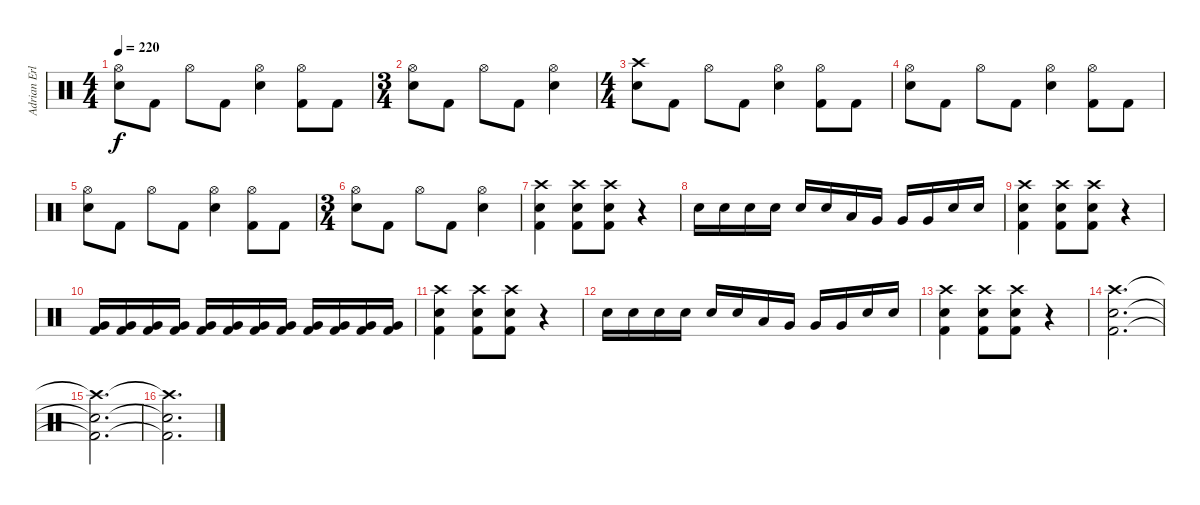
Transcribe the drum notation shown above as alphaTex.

\track ("Adrian Erlandsson" "Adrian Erl") {instrument percussion}
\staff {score}
\articulation defaults
\ts (4 4)
\tempo 220
\clef neutral
\ks c
("Hi-Hat (open)" "Electric Snare (hit)").8{dy f} "Kick (hit) 2".8 "Hi-Hat (open)".8 "Kick (hit) 2".8 ("Hi-Hat (open)" "Electric Snare (hit)").4 ("Hi-Hat (open)" "Kick (hit) 2").8 "Kick (hit) 2".8 |
\ts (3 4)
("Hi-Hat (open)" "Electric Snare (hit)").8 "Kick (hit) 2".8 "Hi-Hat (open)".8 "Kick (hit) 2".8 ("Hi-Hat (open)" "Electric Snare (hit)").4 |
\ts (4 4)
("Crash high (hit)" "Electric Snare (hit)").8 "Kick (hit) 2".8 "Hi-Hat (open)".8 "Kick (hit) 2".8 ("Hi-Hat (open)" "Electric Snare (hit)").4 ("Hi-Hat (open)" "Kick (hit) 2").8 "Kick (hit) 2".8 |
("Hi-Hat (open)" "Electric Snare (hit)").8 "Kick (hit) 2".8 "Hi-Hat (open)".8 "Kick (hit) 2".8 ("Hi-Hat (open)" "Electric Snare (hit)").4 ("Hi-Hat (open)" "Kick (hit) 2").8 "Kick (hit) 2".8 |
("Hi-Hat (open)" "Electric Snare (hit)").8 "Kick (hit) 2".8 "Hi-Hat (open)".8 "Kick (hit) 2".8 ("Hi-Hat (open)" "Electric Snare (hit)").4 ("Hi-Hat (open)" "Kick (hit) 2").8 "Kick (hit) 2".8 |
\ts (3 4)
("Hi-Hat (open)" "Electric Snare (hit)").8 "Kick (hit) 2".8 "Hi-Hat (open)".8 "Kick (hit) 2".8 ("Hi-Hat (open)" "Electric Snare (hit)").4 |
("Crash high (hit)" "Electric Snare (hit)" "Kick (hit) 2").4 ("Crash high (hit)" "Electric Snare (hit)" "Kick (hit) 2").8 ("Crash high (hit)" "Electric Snare (hit)" "Kick (hit) 2").8 r.4 |
"Electric Snare (hit)".16 "Electric Snare (hit)".16 "Electric Snare (hit)".16 "Electric Snare (hit)".16 "Electric Snare (hit)".16 "Electric Snare (hit)".16 "Low Tom (hit)".16 "Very Low Tom (hit)".16 "Very Low Tom (hit)".16 "Very Low Tom (hit)".16 "Electric Snare (hit)".16 "Electric Snare (hit)".16 |
("Crash high (hit)" "Electric Snare (hit)" "Kick (hit) 2").4 ("Crash high (hit)" "Electric Snare (hit)" "Kick (hit) 2").8 ("Crash high (hit)" "Electric Snare (hit)" "Kick (hit) 2").8 r.4 |
("Very Low Tom (hit)" "Kick (hit) 2").16 ("Very Low Tom (hit)" "Kick (hit) 2").16 ("Very Low Tom (hit)" "Kick (hit) 2").16 ("Very Low Tom (hit)" "Kick (hit) 2").16 ("Very Low Tom (hit)" "Kick (hit) 2").16 ("Very Low Tom (hit)" "Kick (hit) 2").16 ("Very Low Tom (hit)" "Kick (hit) 2").16 ("Very Low Tom (hit)" "Kick (hit) 2").16 ("Very Low Tom (hit)" "Kick (hit) 2").16 ("Very Low Tom (hit)" "Kick (hit) 2").16 ("Very Low Tom (hit)" "Kick (hit) 2").16 ("Very Low Tom (hit)" "Kick (hit) 2").16 |
("Crash high (hit)" "Electric Snare (hit)" "Kick (hit) 2").4 ("Crash high (hit)" "Electric Snare (hit)" "Kick (hit) 2").8 ("Crash high (hit)" "Electric Snare (hit)" "Kick (hit) 2").8 r.4 |
"Electric Snare (hit)".16 "Electric Snare (hit)".16 "Electric Snare (hit)".16 "Electric Snare (hit)".16 "Electric Snare (hit)".16 "Electric Snare (hit)".16 "Low Tom (hit)".16 "Very Low Tom (hit)".16 "Very Low Tom (hit)".16 "Very Low Tom (hit)".16 "Electric Snare (hit)".16 "Electric Snare (hit)".16 |
("Crash high (hit)" "Electric Snare (hit)" "Kick (hit) 2").4 ("Crash high (hit)" "Electric Snare (hit)" "Kick (hit) 2").8 ("Crash high (hit)" "Electric Snare (hit)" "Kick (hit) 2").8 r.4 |
("Crash high (hit)" "Electric Snare (hit)" "Kick (hit) 2").2{d} |
("Crash high (hit)"{t} "Electric Snare (hit)"{t} "Kick (hit) 2"{t}).2{d} |
("Crash high (hit)"{t} "Electric Snare (hit)"{t} "Kick (hit) 2"{t}).2{d}
